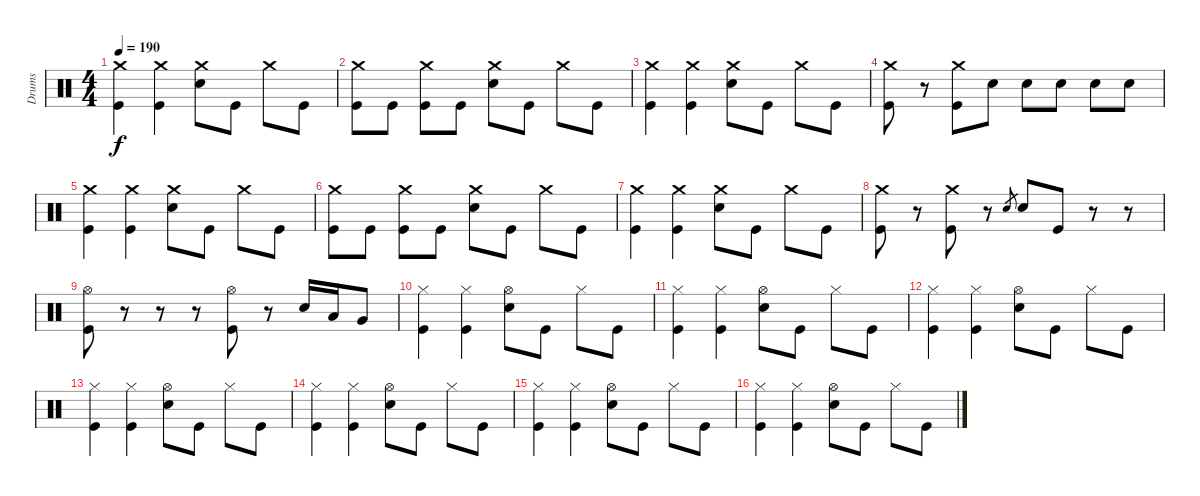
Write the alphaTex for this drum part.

\track ("Drums" "Drums") {instrument percussion}
\staff {score}
\articulation defaults
\ts (4 4)
\tempo 190
\clef neutral
\ks c
("Crash medium (hit)" "Kick (hit)").4{dy f} ("Crash medium (hit)" "Kick (hit)").4 ("Crash medium (hit)" "Electric Snare (hit)").8 "Kick (hit)".8 "Crash medium (hit)".8 "Kick (hit)".8 |
("Crash medium (hit)" "Kick (hit)").8 "Kick (hit)".8 ("Crash medium (hit)" "Kick (hit)").8 "Kick (hit)".8 ("Crash medium (hit)" "Electric Snare (hit)").8 "Kick (hit)".8 "Crash medium (hit)".8 "Kick (hit)".8 |
("Crash medium (hit)" "Kick (hit)").4 ("Crash medium (hit)" "Kick (hit)").4 ("Crash medium (hit)" "Electric Snare (hit)").8 "Kick (hit)".8 "Crash medium (hit)".8 "Kick (hit)".8 |
("Crash medium (hit)" "Kick (hit)").8 r.8 ("Crash medium (hit)" "Kick (hit)").8 "Electric Snare (hit)".8 "Electric Snare (hit)".8 "Electric Snare (hit)".8 "Electric Snare (hit)".8 "Electric Snare (hit)".8 |
("Crash medium (hit)" "Kick (hit)").4 ("Crash medium (hit)" "Kick (hit)").4 ("Crash medium (hit)" "Electric Snare (hit)").8 "Kick (hit)".8 "Crash medium (hit)".8 "Kick (hit)".8 |
("Crash medium (hit)" "Kick (hit)").8 "Kick (hit)".8 ("Crash medium (hit)" "Kick (hit)").8 "Kick (hit)".8 ("Crash medium (hit)" "Electric Snare (hit)").8 "Kick (hit)".8 "Crash medium (hit)".8 "Kick (hit)".8 |
("Crash medium (hit)" "Kick (hit)").4 ("Crash medium (hit)" "Kick (hit)").4 ("Crash medium (hit)" "Electric Snare (hit)").8 "Kick (hit)".8 "Crash medium (hit)".8 "Kick (hit)".8 |
("Crash medium (hit)" "Kick (hit)").8 r.8 ("Crash medium (hit)" "Kick (hit)").8 r.8 "Electric Snare (hit)".8{gr} "Electric Snare (hit)".8 "Kick (hit)".8 r.8 r.8 |
("Hi-Hat (open)" "Kick (hit)").8 r.8 r.8 r.8 ("Hi-Hat (open)" "Kick (hit)").8 r.8 "Electric Snare (hit)".16 "Low Tom (hit)".16 "Very Low Tom (hit)".8 |
("Hi-Hat (closed)" "Kick (hit)").4 ("Hi-Hat (closed)" "Kick (hit)").4 ("Hi-Hat (open)" "Electric Snare (hit)").8 "Kick (hit)".8 "Hi-Hat (closed)".8 "Kick (hit)".8 |
("Hi-Hat (closed)" "Kick (hit)").4 ("Hi-Hat (closed)" "Kick (hit)").4 ("Hi-Hat (open)" "Electric Snare (hit)").8 "Kick (hit)".8 "Hi-Hat (closed)".8 "Kick (hit)".8 |
("Hi-Hat (closed)" "Kick (hit)").4 ("Hi-Hat (closed)" "Kick (hit)").4 ("Hi-Hat (open)" "Electric Snare (hit)").8 "Kick (hit)".8 "Hi-Hat (closed)".8 "Kick (hit)".8 |
("Hi-Hat (closed)" "Kick (hit)").4 ("Hi-Hat (closed)" "Kick (hit)").4 ("Hi-Hat (open)" "Electric Snare (hit)").8 "Kick (hit)".8 "Hi-Hat (closed)".8 "Kick (hit)".8 |
("Hi-Hat (closed)" "Kick (hit)").4 ("Hi-Hat (closed)" "Kick (hit)").4 ("Hi-Hat (open)" "Electric Snare (hit)").8 "Kick (hit)".8 "Hi-Hat (closed)".8 "Kick (hit)".8 |
("Hi-Hat (closed)" "Kick (hit)").4 ("Hi-Hat (closed)" "Kick (hit)").4 ("Hi-Hat (open)" "Electric Snare (hit)").8 "Kick (hit)".8 "Hi-Hat (closed)".8 "Kick (hit)".8 |
("Hi-Hat (closed)" "Kick (hit)").4 ("Hi-Hat (closed)" "Kick (hit)").4 ("Hi-Hat (open)" "Electric Snare (hit)").8 "Kick (hit)".8 "Hi-Hat (closed)".8 "Kick (hit)".8
